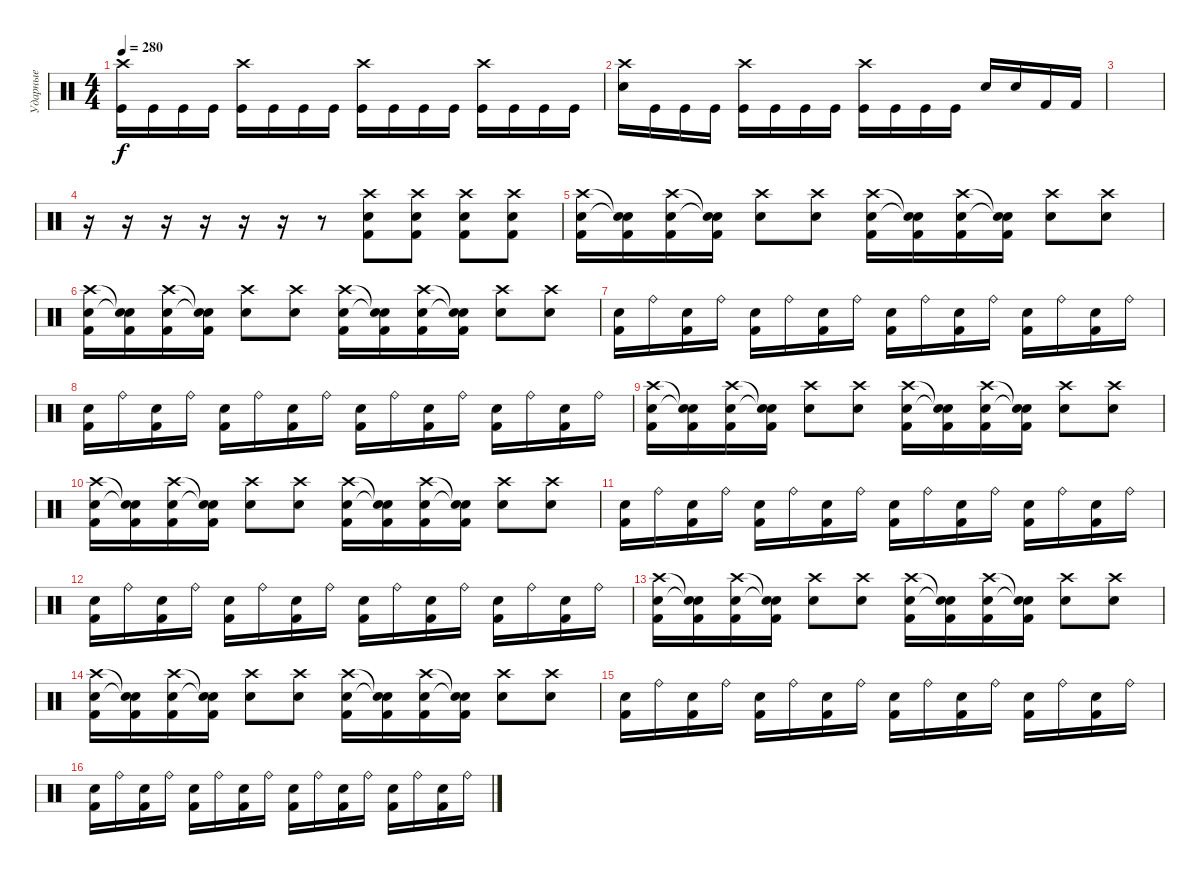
\track ("Ударные" "Ударные") {instrument percussion}
\staff {score}
\articulation defaults
\ts (4 4)
\tempo 280
\clef neutral
\ks c
("Crash high (hit)" "Kick (hit)").16{dy f} "Kick (hit)".16 "Kick (hit)".16 "Kick (hit)".16 ("Crash high (hit)" "Kick (hit)").16 "Kick (hit)".16 "Kick (hit)".16 "Kick (hit)".16 ("Crash high (hit)" "Kick (hit)").16 "Kick (hit)".16 "Kick (hit)".16 "Kick (hit)".16 ("Crash high (hit)" "Kick (hit)").16 "Kick (hit)".16 "Kick (hit)".16 "Kick (hit)".16 |
("Crash high (hit)" "Electric Snare (hit)").16 "Kick (hit)".16 "Kick (hit)".16 "Kick (hit)".16 ("Crash high (hit)" "Kick (hit)").16 "Kick (hit)".16 "Kick (hit)".16 "Kick (hit)".16 ("Crash high (hit)" "Kick (hit)").16 "Kick (hit)".16 "Kick (hit)".16 "Kick (hit)".16 "Electric Snare (hit)".16 "Electric Snare (hit)".16 "Kick (hit) 2".16 "Kick (hit) 2".16 |
|
r.16 r.16 r.16 r.16 r.16 r.16 r.8 ("Crash high (hit)" "Electric Snare (hit)" "Kick (hit) 2").8 ("Crash high (hit)" "Electric Snare (hit)" "Kick (hit) 2").8 ("Crash high (hit)" "Electric Snare (hit)" "Kick (hit) 2").8 ("Crash high (hit)" "Electric Snare (hit)" "Kick (hit) 2").8 |
("Crash high (hit)" "Electric Snare (hit)" "Kick (hit) 2").16 ("Snare (hit)"{t} "Snare (hit)"{t} "Kick (hit) 2").16 ("Crash high (hit)" "Electric Snare (hit)" "Kick (hit) 2").16 ("Snare (hit)"{t} "Snare (hit)"{t} "Kick (hit) 2").16 ("Crash high (hit)" "Electric Snare (hit)").8 ("Crash high (hit)" "Electric Snare (hit)").8 ("Crash high (hit)" "Electric Snare (hit)" "Kick (hit) 2").16 ("Snare (hit)"{t} "Snare (hit)"{t} "Kick (hit) 2").16 ("Crash high (hit)" "Electric Snare (hit)" "Kick (hit) 2").16 ("Snare (hit)"{t} "Snare (hit)"{t} "Kick (hit) 2").16 ("Crash high (hit)" "Electric Snare (hit)").8 ("Crash high (hit)" "Electric Snare (hit)").8 |
("Crash high (hit)" "Electric Snare (hit)" "Kick (hit) 2").16 ("Snare (hit)"{t} "Snare (hit)"{t} "Kick (hit) 2").16 ("Crash high (hit)" "Electric Snare (hit)" "Kick (hit) 2").16 ("Snare (hit)"{t} "Snare (hit)"{t} "Kick (hit) 2").16 ("Crash high (hit)" "Electric Snare (hit)").8 ("Crash high (hit)" "Electric Snare (hit)").8 ("Crash high (hit)" "Electric Snare (hit)" "Kick (hit) 2").16 ("Snare (hit)"{t} "Snare (hit)"{t} "Kick (hit) 2").16 ("Crash high (hit)" "Electric Snare (hit)" "Kick (hit) 2").16 ("Snare (hit)"{t} "Snare (hit)"{t} "Kick (hit) 2").16 ("Crash high (hit)" "Electric Snare (hit)").8 ("Crash high (hit)" "Electric Snare (hit)").8 |
("Kick (hit) 2" "Electric Snare (hit)").16 "Ride (bell)".16 ("Kick (hit) 2" "Electric Snare (hit)").16 "Ride (bell)".16 ("Kick (hit) 2" "Electric Snare (hit)").16 "Ride (bell)".16 ("Kick (hit) 2" "Electric Snare (hit)").16 "Ride (bell)".16 ("Kick (hit) 2" "Electric Snare (hit)").16 "Ride (bell)".16 ("Kick (hit) 2" "Electric Snare (hit)").16 "Ride (bell)".16 ("Kick (hit) 2" "Electric Snare (hit)").16 "Ride (bell)".16 ("Kick (hit) 2" "Electric Snare (hit)").16 "Ride (bell)".16 |
("Kick (hit) 2" "Electric Snare (hit)").16 "Ride (bell)".16 ("Kick (hit) 2" "Electric Snare (hit)").16 "Ride (bell)".16 ("Kick (hit) 2" "Electric Snare (hit)").16 "Ride (bell)".16 ("Kick (hit) 2" "Electric Snare (hit)").16 "Ride (bell)".16 ("Kick (hit) 2" "Electric Snare (hit)").16 "Ride (bell)".16 ("Kick (hit) 2" "Electric Snare (hit)").16 "Ride (bell)".16 ("Kick (hit) 2" "Electric Snare (hit)").16 "Ride (bell)".16 ("Kick (hit) 2" "Electric Snare (hit)").16 "Ride (bell)".16 |
("Crash high (hit)" "Electric Snare (hit)" "Kick (hit) 2").16 ("Snare (hit)"{t} "Snare (hit)"{t} "Kick (hit) 2").16 ("Crash high (hit)" "Electric Snare (hit)" "Kick (hit) 2").16 ("Snare (hit)"{t} "Snare (hit)"{t} "Kick (hit) 2").16 ("Crash high (hit)" "Electric Snare (hit)").8 ("Crash high (hit)" "Electric Snare (hit)").8 ("Crash high (hit)" "Electric Snare (hit)" "Kick (hit) 2").16 ("Snare (hit)"{t} "Snare (hit)"{t} "Kick (hit) 2").16 ("Crash high (hit)" "Electric Snare (hit)" "Kick (hit) 2").16 ("Snare (hit)"{t} "Snare (hit)"{t} "Kick (hit) 2").16 ("Crash high (hit)" "Electric Snare (hit)").8 ("Crash high (hit)" "Electric Snare (hit)").8 |
("Crash high (hit)" "Electric Snare (hit)" "Kick (hit) 2").16 ("Snare (hit)"{t} "Snare (hit)"{t} "Kick (hit) 2").16 ("Crash high (hit)" "Electric Snare (hit)" "Kick (hit) 2").16 ("Snare (hit)"{t} "Snare (hit)"{t} "Kick (hit) 2").16 ("Crash high (hit)" "Electric Snare (hit)").8 ("Crash high (hit)" "Electric Snare (hit)").8 ("Crash high (hit)" "Electric Snare (hit)" "Kick (hit) 2").16 ("Snare (hit)"{t} "Snare (hit)"{t} "Kick (hit) 2").16 ("Crash high (hit)" "Electric Snare (hit)" "Kick (hit) 2").16 ("Snare (hit)"{t} "Snare (hit)"{t} "Kick (hit) 2").16 ("Crash high (hit)" "Electric Snare (hit)").8 ("Crash high (hit)" "Electric Snare (hit)").8 |
("Kick (hit) 2" "Electric Snare (hit)").16 "Ride (bell)".16 ("Kick (hit) 2" "Electric Snare (hit)").16 "Ride (bell)".16 ("Kick (hit) 2" "Electric Snare (hit)").16 "Ride (bell)".16 ("Kick (hit) 2" "Electric Snare (hit)").16 "Ride (bell)".16 ("Kick (hit) 2" "Electric Snare (hit)").16 "Ride (bell)".16 ("Kick (hit) 2" "Electric Snare (hit)").16 "Ride (bell)".16 ("Kick (hit) 2" "Electric Snare (hit)").16 "Ride (bell)".16 ("Kick (hit) 2" "Electric Snare (hit)").16 "Ride (bell)".16 |
("Kick (hit) 2" "Electric Snare (hit)").16 "Ride (bell)".16 ("Kick (hit) 2" "Electric Snare (hit)").16 "Ride (bell)".16 ("Kick (hit) 2" "Electric Snare (hit)").16 "Ride (bell)".16 ("Kick (hit) 2" "Electric Snare (hit)").16 "Ride (bell)".16 ("Kick (hit) 2" "Electric Snare (hit)").16 "Ride (bell)".16 ("Kick (hit) 2" "Electric Snare (hit)").16 "Ride (bell)".16 ("Kick (hit) 2" "Electric Snare (hit)").16 "Ride (bell)".16 ("Kick (hit) 2" "Electric Snare (hit)").16 "Ride (bell)".16 |
("Crash high (hit)" "Electric Snare (hit)" "Kick (hit) 2").16 ("Snare (hit)"{t} "Snare (hit)"{t} "Kick (hit) 2").16 ("Crash high (hit)" "Electric Snare (hit)" "Kick (hit) 2").16 ("Snare (hit)"{t} "Snare (hit)"{t} "Kick (hit) 2").16 ("Crash high (hit)" "Electric Snare (hit)").8 ("Crash high (hit)" "Electric Snare (hit)").8 ("Crash high (hit)" "Electric Snare (hit)" "Kick (hit) 2").16 ("Snare (hit)"{t} "Snare (hit)"{t} "Kick (hit) 2").16 ("Crash high (hit)" "Electric Snare (hit)" "Kick (hit) 2").16 ("Snare (hit)"{t} "Snare (hit)"{t} "Kick (hit) 2").16 ("Crash high (hit)" "Electric Snare (hit)").8 ("Crash high (hit)" "Electric Snare (hit)").8 |
("Crash high (hit)" "Electric Snare (hit)" "Kick (hit) 2").16 ("Snare (hit)"{t} "Snare (hit)"{t} "Kick (hit) 2").16 ("Crash high (hit)" "Electric Snare (hit)" "Kick (hit) 2").16 ("Snare (hit)"{t} "Snare (hit)"{t} "Kick (hit) 2").16 ("Crash high (hit)" "Electric Snare (hit)").8 ("Crash high (hit)" "Electric Snare (hit)").8 ("Crash high (hit)" "Electric Snare (hit)" "Kick (hit) 2").16 ("Snare (hit)"{t} "Snare (hit)"{t} "Kick (hit) 2").16 ("Crash high (hit)" "Electric Snare (hit)" "Kick (hit) 2").16 ("Snare (hit)"{t} "Snare (hit)"{t} "Kick (hit) 2").16 ("Crash high (hit)" "Electric Snare (hit)").8 ("Crash high (hit)" "Electric Snare (hit)").8 |
("Kick (hit) 2" "Electric Snare (hit)").16 "Ride (bell)".16 ("Kick (hit) 2" "Electric Snare (hit)").16 "Ride (bell)".16 ("Kick (hit) 2" "Electric Snare (hit)").16 "Ride (bell)".16 ("Kick (hit) 2" "Electric Snare (hit)").16 "Ride (bell)".16 ("Kick (hit) 2" "Electric Snare (hit)").16 "Ride (bell)".16 ("Kick (hit) 2" "Electric Snare (hit)").16 "Ride (bell)".16 ("Kick (hit) 2" "Electric Snare (hit)").16 "Ride (bell)".16 ("Kick (hit) 2" "Electric Snare (hit)").16 "Ride (bell)".16 |
("Kick (hit) 2" "Electric Snare (hit)").16 "Ride (bell)".16 ("Kick (hit) 2" "Electric Snare (hit)").16 "Ride (bell)".16 ("Kick (hit) 2" "Electric Snare (hit)").16 "Ride (bell)".16 ("Kick (hit) 2" "Electric Snare (hit)").16 "Ride (bell)".16 ("Kick (hit) 2" "Electric Snare (hit)").16 "Ride (bell)".16 ("Kick (hit) 2" "Electric Snare (hit)").16 "Ride (bell)".16 ("Kick (hit) 2" "Electric Snare (hit)").16 "Ride (bell)".16 ("Kick (hit) 2" "Electric Snare (hit)").16 "Ride (bell)".16
